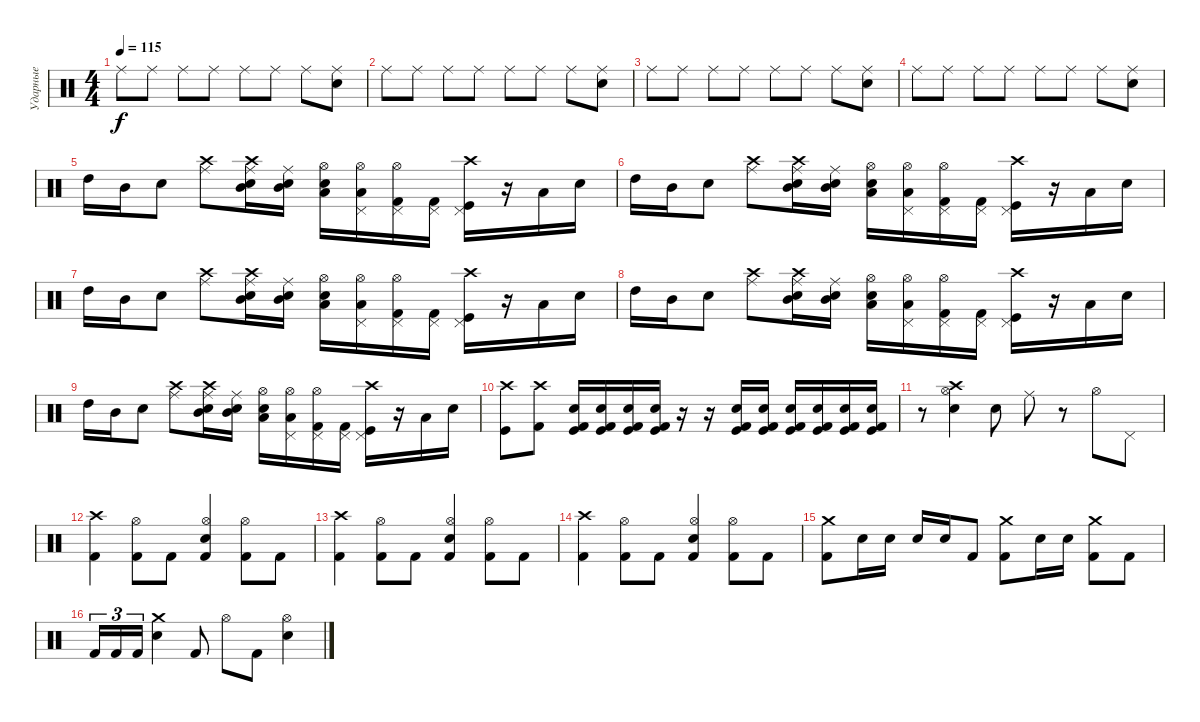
\track ("Ударные" "Ударные") {instrument percussion}
\staff {score}
\articulation defaults
\ts (4 4)
\tempo 115
\clef neutral
\ks c "Ride (middle)".8{dy f} "Ride (middle)".8 "Ride (middle)".8 "Ride (middle)".8 "Ride (middle)".8 "Ride (middle)".8 "Ride (middle)".8
("Ride (middle)" "Electric Snare (hit)").8 |
"Ride (middle)".8 "Ride (middle)".8 "Ride (middle)".8 "Ride (middle)".8 "Ride (middle)".8 "Ride (middle)".8 "Ride (middle)".8 ("Ride (middle)" "Electric Snare (hit)").8 |
"Ride (middle)".8 "Ride (middle)".8 "Ride (middle)".8 "Ride (middle)".8 "Ride (middle)".8 "Ride (middle)".8 "Ride (middle)".8 ("Ride (middle)" "Electric Snare (hit)").8 |
"Ride (middle)".8 "Ride (middle)".8 "Ride (middle)".8 "Ride (middle)".8 "Ride (middle)".8 "Ride (middle)".8 "Ride (middle)".8 ("Ride (middle)" "Electric Snare (hit)").8 |
"High Tom (hit)".16 "Mid Tom (hit)".16 "Electric Snare (hit)".8 ("Crash high (hit)" "Ride (middle)").8 ("Crash high (hit)" "Mid Tom (hit)" "Electric Snare (hit)" "Ride (middle)").16 ("Mid Tom (hit)" "Electric Snare (hit)" "Ride (middle)").16 ("Electric Snare (hit)" "Low Tom (hit)" "Hi-Hat (open)").16 ("Hi-Hat (open)" "Low Tom (hit)" "Pedal Hi-Hat (hit)").16 ("Pedal Hi-Hat (hit)" "Kick (hit) 2" "Hi-Hat (open)").16 ("Kick (hit) 2" "Pedal Hi-Hat (hit)").16 ("Crash high (hit)" "Kick (hit)" "Pedal Hi-Hat (hit)").16 r.16 "Low Floor Tom (hit)".16 "Electric Snare (hit)".16 |
"High Tom (hit)".16 "Mid Tom (hit)".16 "Electric Snare (hit)".8 ("Crash high (hit)" "Ride (middle)").8 ("Crash high (hit)" "Mid Tom (hit)" "Electric Snare (hit)" "Ride (middle)").16 ("Mid Tom (hit)" "Electric Snare (hit)" "Ride (middle)").16 ("Electric Snare (hit)" "Low Tom (hit)" "Hi-Hat (open)").16 ("Hi-Hat (open)" "Low Tom (hit)" "Pedal Hi-Hat (hit)").16 ("Pedal Hi-Hat (hit)" "Kick (hit) 2" "Hi-Hat (open)").16 ("Kick (hit) 2" "Pedal Hi-Hat (hit)").16 ("Crash high (hit)" "Kick (hit)" "Pedal Hi-Hat (hit)").16 r.16 "Low Floor Tom (hit)".16 "Electric Snare (hit)".16 |
"High Tom (hit)".16 "Mid Tom (hit)".16 "Electric Snare (hit)".8 ("Crash high (hit)" "Ride (middle)").8 ("Crash high (hit)" "Mid Tom (hit)" "Electric Snare (hit)" "Ride (middle)").16 ("Mid Tom (hit)" "Electric Snare (hit)" "Ride (middle)").16 ("Electric Snare (hit)" "Low Tom (hit)" "Hi-Hat (open)").16 ("Hi-Hat (open)" "Low Tom (hit)" "Pedal Hi-Hat (hit)").16 ("Pedal Hi-Hat (hit)" "Kick (hit) 2" "Hi-Hat (open)").16 ("Kick (hit) 2" "Pedal Hi-Hat (hit)").16 ("Crash high (hit)" "Kick (hit)" "Pedal Hi-Hat (hit)").16 r.16 "Low Floor Tom (hit)".16 "Electric Snare (hit)".16 |
"High Tom (hit)".16 "Mid Tom (hit)".16 "Electric Snare (hit)".8 ("Crash high (hit)" "Ride (middle)").8 ("Crash high (hit)" "Mid Tom (hit)" "Electric Snare (hit)" "Ride (middle)").16 ("Mid Tom (hit)" "Electric Snare (hit)" "Ride (middle)").16 ("Electric Snare (hit)" "Low Tom (hit)" "Hi-Hat (open)").16 ("Hi-Hat (open)" "Low Tom (hit)" "Pedal Hi-Hat (hit)").16 ("Pedal Hi-Hat (hit)" "Kick (hit) 2" "Hi-Hat (open)").16 ("Kick (hit) 2" "Pedal Hi-Hat (hit)").16 ("Crash high (hit)" "Kick (hit)" "Pedal Hi-Hat (hit)").16 r.16 "Low Floor Tom (hit)".16 "Electric Snare (hit)".16 |
"High Tom (hit)".16 "Mid Tom (hit)".16 "Electric Snare (hit)".8 ("Crash high (hit)" "Ride (middle)").8 ("Crash high (hit)" "Mid Tom (hit)" "Electric Snare (hit)" "Ride (middle)").16 ("Mid Tom (hit)" "Electric Snare (hit)" "Ride (middle)").16 ("Electric Snare (hit)" "Low Tom (hit)" "Hi-Hat (open)").16 ("Hi-Hat (open)" "Low Tom (hit)" "Pedal Hi-Hat (hit)").16 ("Pedal Hi-Hat (hit)" "Kick (hit) 2" "Hi-Hat (open)").16 ("Kick (hit) 2" "Pedal Hi-Hat (hit)").16 ("Crash high (hit)" "Kick (hit)" "Pedal Hi-Hat (hit)").16 r.16 "Low Floor Tom (hit)".16 "Electric Snare (hit)".16 |
("Kick (hit)" "Crash high (hit)").8 ("Kick (hit) 2" "Crash high (hit)").8 ("Electric Snare (hit)" "Kick (hit) 2" "Kick (hit)").16 ("Electric Snare (hit)" "Kick (hit) 2" "Kick (hit)").16 ("Electric Snare (hit)" "Kick (hit) 2" "Kick (hit)").16 ("Electric Snare (hit)" "Kick (hit) 2" "Kick (hit)").16 r.16 r.16 ("Electric Snare (hit)" "Kick (hit) 2" "Kick (hit)").16 ("Electric Snare (hit)" "Kick (hit) 2" "Kick (hit)").16 ("Electric Snare (hit)" "Kick (hit) 2" "Kick (hit)").16 ("Electric Snare (hit)" "Kick (hit) 2" "Kick (hit)").16 ("Electric Snare (hit)" "Kick (hit) 2" "Kick (hit)").16 ("Electric Snare (hit)" "Kick (hit) 2" "Kick (hit)").16 |
r.8 ("Crash high (hit)" "Electric Snare (hit)" "Hi-Hat (open)").4 "Electric Snare (hit)".8 "Ride (middle)".8 r.8 "Hi-Hat (open)".8 "Pedal Hi-Hat (hit)".8 |
("Kick (hit) 2" "Crash high (hit)").4 ("Kick (hit) 2" "Hi-Hat (open)").8 "Kick (hit) 2".8 ("Kick (hit) 2" "Hi-Hat (open)" "Electric Snare (hit)").4 ("Kick (hit) 2" "Hi-Hat (open)").8 "Kick (hit) 2".8 |
("Kick (hit) 2" "Crash high (hit)").4 ("Kick (hit) 2" "Hi-Hat (open)").8 "Kick (hit) 2".8 ("Kick (hit) 2" "Hi-Hat (open)" "Electric Snare (hit)").4 ("Kick (hit) 2" "Hi-Hat (open)").8 "Kick (hit) 2".8 |
("Kick (hit) 2" "Crash high (hit)").4 ("Kick (hit) 2" "Hi-Hat (open)").8 "Kick (hit) 2".8 ("Kick (hit) 2" "Hi-Hat (open)" "Electric Snare (hit)").4 ("Kick (hit) 2" "Hi-Hat (open)").8 "Kick (hit) 2".8 |
("Kick (hit) 2" "Crash medium (hit)").8 "Electric Snare (hit)".16 "Electric Snare (hit)".16 "Electric Snare (hit)".16 "Electric Snare (hit)".16 "Kick (hit) 2".8 ("Kick (hit) 2" "Crash medium (hit)").8 "Electric Snare (hit)".16 "Electric Snare (hit)".16 ("Kick (hit) 2" "Crash medium (hit)").8 "Kick (hit) 2".8 |
"Kick (hit) 2".16{tu (3 2)} "Kick (hit) 2".16{tu (3 2)} "Kick (hit) 2".16{tu (3 2)} ("Electric Snare (hit)" "Crash medium (hit)").4 "Kick (hit) 2".8 "Hi-Hat (open)".8 "Kick (hit) 2".8 ("Hi-Hat (open)" "Electric Snare (hit)").4
